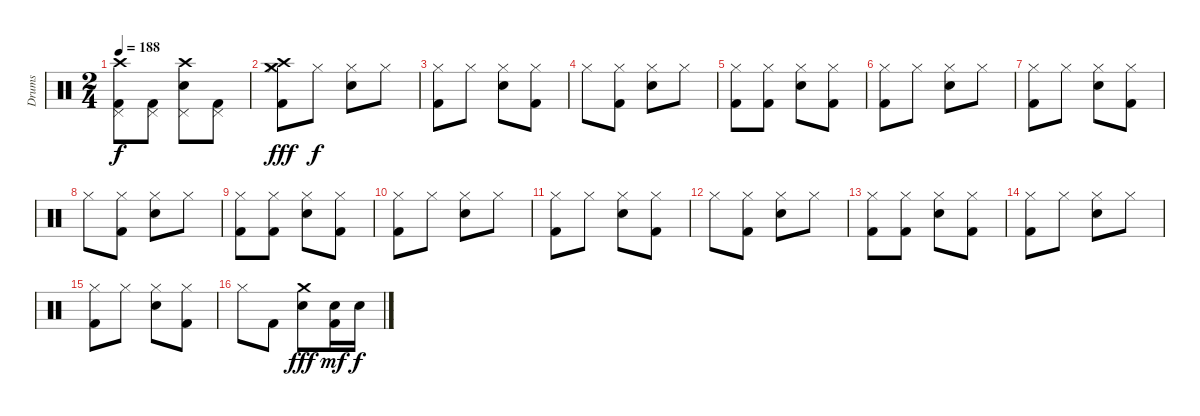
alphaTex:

\track ("Drums" "Drums") {instrument percussion}
\staff {score}
\articulation defaults
\ts (2 4)
\tempo 188
\clef neutral
\ks c
("Crash high (hit)" "Pedal Hi-Hat (hit)" "Kick (hit) 2").8{dy f} ("Pedal Hi-Hat (hit)" "Kick (hit) 2").8 ("Crash high (hit)" "Pedal Hi-Hat (hit)" "Snare (hit) 2").8 ("Pedal Hi-Hat (hit)" "Kick (hit) 2").8 |
("Crash high (hit)" "Crash medium (hit)" "Hi-Hat (closed)" "Kick (hit) 2").8{dy fff} "Hi-Hat (closed)".8{dy f} ("Hi-Hat (closed)" "Snare (hit) 2").8 "Hi-Hat (closed)".8 |
("Hi-Hat (closed)" "Kick (hit) 2").8 "Hi-Hat (closed)".8 ("Hi-Hat (closed)" "Snare (hit) 2").8 ("Hi-Hat (closed)" "Kick (hit) 2").8 |
"Hi-Hat (closed)".8 ("Hi-Hat (closed)" "Kick (hit) 2").8 ("Hi-Hat (closed)" "Snare (hit) 2").8 "Hi-Hat (closed)".8 |
("Hi-Hat (closed)" "Kick (hit) 2").8 ("Hi-Hat (closed)" "Kick (hit) 2").8 ("Hi-Hat (closed)" "Snare (hit) 2").8 ("Hi-Hat (closed)" "Kick (hit) 2").8 |
("Hi-Hat (closed)" "Kick (hit) 2").8 "Hi-Hat (closed)".8 ("Hi-Hat (closed)" "Snare (hit) 2").8 "Hi-Hat (closed)".8 |
("Hi-Hat (closed)" "Kick (hit) 2").8 "Hi-Hat (closed)".8 ("Hi-Hat (closed)" "Snare (hit) 2").8 ("Hi-Hat (closed)" "Kick (hit) 2").8 |
"Hi-Hat (closed)".8 ("Hi-Hat (closed)" "Kick (hit) 2").8 ("Hi-Hat (closed)" "Snare (hit) 2").8 "Hi-Hat (closed)".8 |
("Hi-Hat (closed)" "Kick (hit) 2").8 ("Hi-Hat (closed)" "Kick (hit) 2").8 ("Hi-Hat (closed)" "Snare (hit) 2").8 ("Hi-Hat (closed)" "Kick (hit) 2").8 |
("Hi-Hat (closed)" "Kick (hit) 2").8 "Hi-Hat (closed)".8 ("Hi-Hat (closed)" "Snare (hit) 2").8 "Hi-Hat (closed)".8 |
("Hi-Hat (closed)" "Kick (hit) 2").8 "Hi-Hat (closed)".8 ("Hi-Hat (closed)" "Snare (hit) 2").8 ("Hi-Hat (closed)" "Kick (hit) 2").8 |
"Hi-Hat (closed)".8 ("Hi-Hat (closed)" "Kick (hit) 2").8 ("Hi-Hat (closed)" "Snare (hit) 2").8 "Hi-Hat (closed)".8 |
("Hi-Hat (closed)" "Kick (hit) 2").8 ("Hi-Hat (closed)" "Kick (hit) 2").8 ("Hi-Hat (closed)" "Snare (hit) 2").8 ("Hi-Hat (closed)" "Kick (hit) 2").8 |
("Hi-Hat (closed)" "Kick (hit) 2").8 "Hi-Hat (closed)".8 ("Hi-Hat (closed)" "Snare (hit) 2").8 "Hi-Hat (closed)".8 |
("Hi-Hat (closed)" "Kick (hit) 2").8 "Hi-Hat (closed)".8 ("Hi-Hat (closed)" "Snare (hit) 2").8 ("Hi-Hat (closed)" "Kick (hit) 2").8 |
"Hi-Hat (closed)".8 "Kick (hit) 2".8 ("Crash medium (hit)" "Snare (hit) 2").8{dy fff} ("Snare (hit) 2" "Kick (hit) 2").16{dy mf} "Snare (hit) 2".16{dy f}
